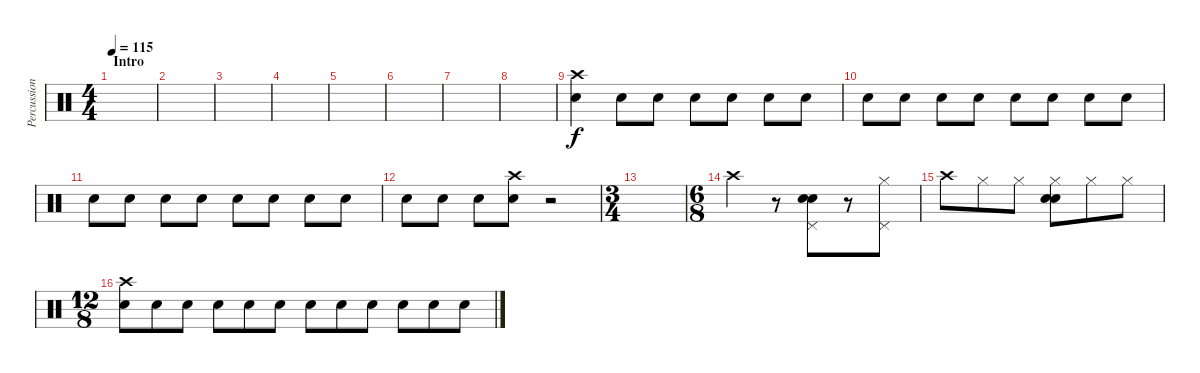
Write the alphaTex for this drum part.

\track ("Percussions" "Percussion") {instrument percussion}
\staff {score}
\articulation defaults
\ts (4 4)
\section ("" "Intro")
\tempo 115
\clef neutral
\ks c
|
|
|
|
|
|
|
|
("Crash high (hit)" "Snare (hit) 2").4 "Snare (hit) 2".8 "Snare (hit) 2".8 "Snare (hit) 2".8 "Snare (hit) 2".8 "Snare (hit) 2".8 "Snare (hit) 2".8 |
"Snare (hit) 2".8 "Snare (hit) 2".8 "Snare (hit) 2".8 "Snare (hit) 2".8 "Snare (hit) 2".8 "Snare (hit) 2".8 "Snare (hit) 2".8 "Snare (hit) 2".8 |
"Snare (hit) 2".8 "Snare (hit) 2".8 "Snare (hit) 2".8 "Snare (hit) 2".8 "Snare (hit) 2".8 "Snare (hit) 2".8 "Snare (hit) 2".8 "Snare (hit) 2".8 |
"Snare (hit) 2".8 "Snare (hit) 2".8 "Snare (hit) 2".8 ("Crash high (hit)" "Snare (hit) 2").8 r.2 |
\ts (3 4)
|
\ts (6 8)
"Crash high (hit)".4 r.8 ("Pedal Hi-Hat (hit)" "Snare (hit) 2" "Electric Snare (hit)").8 r.8 ("Pedal Hi-Hat (hit)" "Hi-Hat (closed)").8 |
"Crash high (hit)".8 "Hi-Hat (closed)".8 "Hi-Hat (closed)".8 ("Electric Snare (hit)" "Hi-Hat (closed)" "Snare (hit) 2").8 "Hi-Hat (closed)".8 "Hi-Hat (closed)".8 |
\ts (12 8)
("Snare (hit) 2" "Crash high (hit)").8 "Snare (hit) 2".8 "Snare (hit) 2".8 "Snare (hit) 2".8 "Snare (hit) 2".8 "Snare (hit) 2".8 "Snare (hit) 2".8 "Snare (hit) 2".8 "Snare (hit) 2".8 "Snare (hit) 2".8 "Snare (hit) 2".8 "Snare (hit) 2".8
